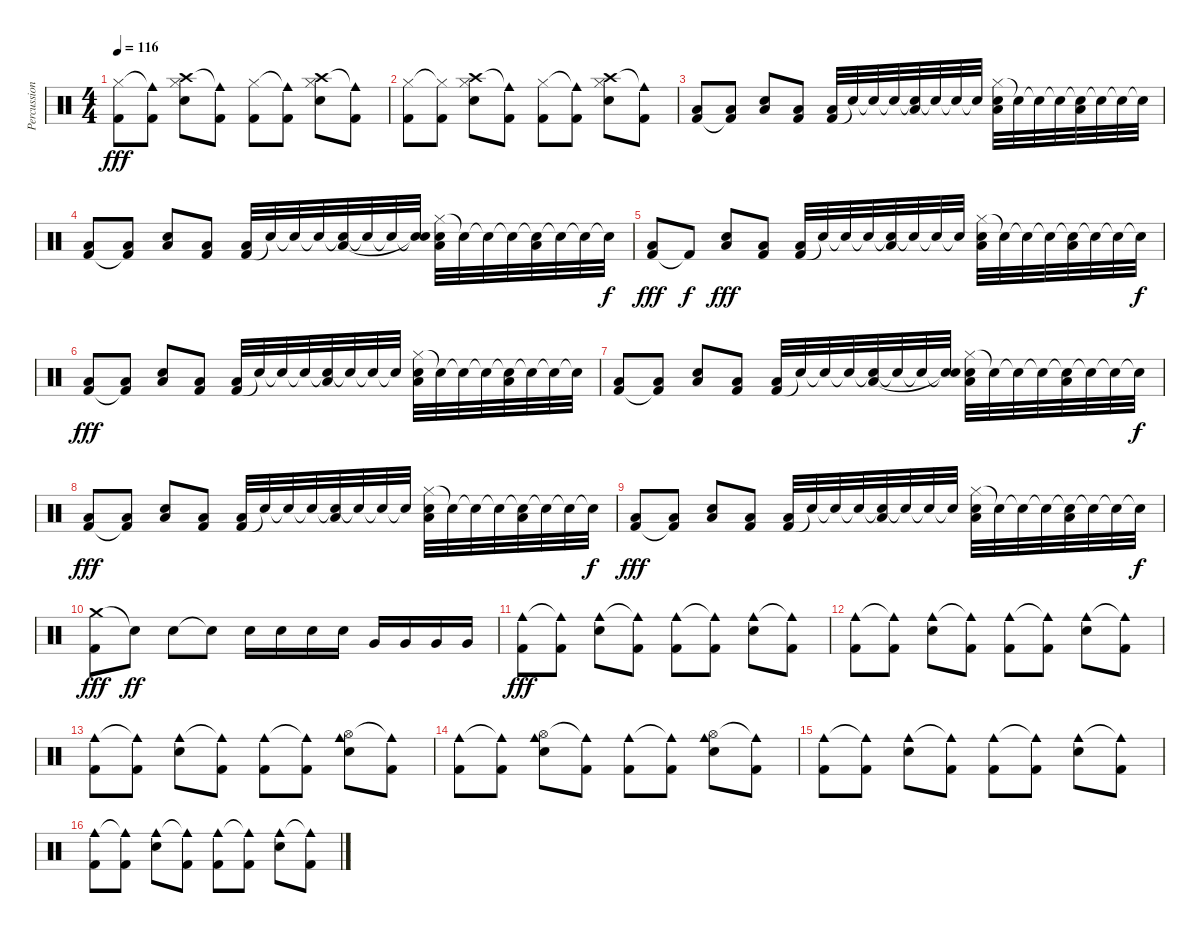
\track ("Percussion" "Percussion") {instrument percussion}
\staff {score}
\articulation defaults
\ts (4 4)
\tempo 116
\clef neutral
\ks c
("Hi-Hat (closed)" "Kick (hit) 2").8{dy fff} ("Cowbell medium (hit)"{t} "Kick (hit) 2").8 ("Crash high (hit)" "Hi-Hat (closed)" "Electric Snare (hit)").8 ("Cowbell medium (hit)"{t} "Kick (hit) 2").8 ("Hi-Hat (closed)" "Kick (hit) 2").8 ("Cowbell medium (hit)"{t} "Kick (hit) 2").8 ("Crash high (hit)" "Hi-Hat (closed)" "Electric Snare (hit)").8 ("Cowbell medium (hit)"{t} "Kick (hit) 2").8 |
("Hi-Hat (closed)" "Kick (hit) 2").8 ("Hi-Hat (closed)"{t} "Kick (hit) 2").8 ("Crash high (hit)" "Hi-Hat (closed)" "Electric Snare (hit)").8 ("Cowbell medium (hit)"{t} "Kick (hit) 2").8 ("Hi-Hat (closed)" "Kick (hit) 2").8 ("Cowbell medium (hit)"{t} "Kick (hit) 2").8 ("Crash high (hit)" "Hi-Hat (closed)" "Electric Snare (hit)").8 ("Cowbell medium (hit)"{t} "Kick (hit) 2").8 |
("Kick (hit) 2" "Low Floor Tom (hit)").8 ("Kick (hit) 2"{t} "Low Floor Tom (hit)").8 ("Electric Snare (hit)" "Low Floor Tom (hit)").8 ("Kick (hit) 2" "Low Floor Tom (hit)").8 ("Kick (hit) 2" "Low Floor Tom (hit)").32 "Snare (hit)"{t}.32 "Snare (hit)"{t}.32 "Snare (hit)"{t}.32 ("Snare (hit)"{t} "Low Floor Tom (hit)").32 "Snare (hit)"{t}.32 "Snare (hit)"{t}.32 "Snare (hit)"{t}.32 ("Hi-Hat (closed)" "Electric Snare (hit)" "Low Floor Tom (hit)").32 "Snare (hit)"{t}.32 "Snare (hit)"{t}.32 "Snare (hit)"{t}.32 ("Snare (hit)"{t} "Low Floor Tom (hit)").32 "Snare (hit)"{t}.32 "Snare (hit)"{t}.32 "Snare (hit)"{t}.32 |
("Kick (hit) 2" "Low Floor Tom (hit)").8 ("Kick (hit) 2"{t} "Low Floor Tom (hit)").8 ("Electric Snare (hit)" "Low Floor Tom (hit)").8 ("Kick (hit) 2" "Low Floor Tom (hit)").8 ("Kick (hit) 2" "Low Floor Tom (hit)").32 "Snare (hit)"{t}.32 "Snare (hit)"{t}.32 "Snare (hit)"{t}.32 ("Snare (hit)"{t} "Low Floor Tom (hit)").32 "Snare (hit)"{t}.32 "Snare (hit)"{t}.32 ("Snare (hit)"{t} "Snare (hit)"{t}).32 ("Hi-Hat (closed)" "Electric Snare (hit)" "Low Floor Tom (hit)").32 "Snare (hit)"{t}.32 "Snare (hit)"{t}.32 "Snare (hit)"{t}.32 ("Snare (hit)"{t} "Low Floor Tom (hit)").32 "Snare (hit)"{t}.32 "Snare (hit)"{t}.32 "Snare (hit)"{t}.32{dy f} |
("Kick (hit) 2" "Low Floor Tom (hit)").8{dy fff} "Kick (hit) 2"{t}.8{dy f} ("Electric Snare (hit)" "Low Floor Tom (hit)").8{dy fff} ("Kick (hit) 2" "Low Floor Tom (hit)").8 ("Kick (hit) 2" "Low Floor Tom (hit)").32 "Snare (hit)"{t}.32 "Snare (hit)"{t}.32 "Snare (hit)"{t}.32 ("Snare (hit)"{t} "Low Floor Tom (hit)").32 "Snare (hit)"{t}.32 "Snare (hit)"{t}.32 "Snare (hit)"{t}.32 ("Hi-Hat (closed)" "Electric Snare (hit)" "Low Floor Tom (hit)").32 "Snare (hit)"{t}.32 "Snare (hit)"{t}.32 "Snare (hit)"{t}.32 ("Snare (hit)"{t} "Low Floor Tom (hit)").32 "Snare (hit)"{t}.32 "Snare (hit)"{t}.32 "Snare (hit)"{t}.32{dy f} |
("Kick (hit) 2" "Low Floor Tom (hit)").8{dy fff} ("Kick (hit) 2"{t} "Low Floor Tom (hit)").8 ("Electric Snare (hit)" "Low Floor Tom (hit)").8 ("Kick (hit) 2" "Low Floor Tom (hit)").8 ("Kick (hit) 2" "Low Floor Tom (hit)").32 "Snare (hit)"{t}.32 "Snare (hit)"{t}.32 "Snare (hit)"{t}.32 ("Snare (hit)"{t} "Low Floor Tom (hit)").32 "Snare (hit)"{t}.32 "Snare (hit)"{t}.32 "Snare (hit)"{t}.32 ("Hi-Hat (closed)" "Electric Snare (hit)" "Low Floor Tom (hit)").32 "Snare (hit)"{t}.32 "Snare (hit)"{t}.32 "Snare (hit)"{t}.32 ("Snare (hit)"{t} "Low Floor Tom (hit)").32 "Snare (hit)"{t}.32 "Snare (hit)"{t}.32 "Snare (hit)"{t}.32 |
("Kick (hit) 2" "Low Floor Tom (hit)").8 ("Kick (hit) 2"{t} "Low Floor Tom (hit)").8 ("Electric Snare (hit)" "Low Floor Tom (hit)").8 ("Kick (hit) 2" "Low Floor Tom (hit)").8 ("Kick (hit) 2" "Low Floor Tom (hit)").32 "Snare (hit)"{t}.32 "Snare (hit)"{t}.32 "Snare (hit)"{t}.32 ("Snare (hit)"{t} "Low Floor Tom (hit)").32 "Snare (hit)"{t}.32 "Snare (hit)"{t}.32 ("Snare (hit)"{t} "Snare (hit)"{t}).32 ("Hi-Hat (closed)" "Electric Snare (hit)" "Low Floor Tom (hit)").32 "Snare (hit)"{t}.32 "Snare (hit)"{t}.32 "Snare (hit)"{t}.32 ("Snare (hit)"{t} "Low Floor Tom (hit)").32 "Snare (hit)"{t}.32 "Snare (hit)"{t}.32 "Snare (hit)"{t}.32{dy f} |
("Kick (hit) 2" "Low Floor Tom (hit)").8{dy fff} ("Kick (hit) 2"{t} "Low Floor Tom (hit)").8 ("Electric Snare (hit)" "Low Floor Tom (hit)").8 ("Kick (hit) 2" "Low Floor Tom (hit)").8 ("Kick (hit) 2" "Low Floor Tom (hit)").32 "Snare (hit)"{t}.32 "Snare (hit)"{t}.32 "Snare (hit)"{t}.32 ("Snare (hit)"{t} "Low Floor Tom (hit)").32 "Snare (hit)"{t}.32 "Snare (hit)"{t}.32 "Snare (hit)"{t}.32 ("Hi-Hat (closed)" "Electric Snare (hit)" "Low Floor Tom (hit)").32 "Snare (hit)"{t}.32 "Snare (hit)"{t}.32 "Snare (hit)"{t}.32 ("Snare (hit)"{t} "Low Floor Tom (hit)").32 "Snare (hit)"{t}.32 "Snare (hit)"{t}.32 "Snare (hit)"{t}.32{dy f} |
("Kick (hit) 2" "Low Floor Tom (hit)").8{dy fff} ("Kick (hit) 2"{t} "Low Floor Tom (hit)").8 ("Electric Snare (hit)" "Low Floor Tom (hit)").8 ("Kick (hit) 2" "Low Floor Tom (hit)").8 ("Kick (hit) 2" "Low Floor Tom (hit)").32 "Snare (hit)"{t}.32 "Snare (hit)"{t}.32 "Snare (hit)"{t}.32 ("Snare (hit)"{t} "Low Floor Tom (hit)").32 "Snare (hit)"{t}.32 "Snare (hit)"{t}.32 "Snare (hit)"{t}.32 ("Hi-Hat (closed)" "Electric Snare (hit)" "Low Floor Tom (hit)").32 "Snare (hit)"{t}.32 "Snare (hit)"{t}.32 "Snare (hit)"{t}.32 ("Snare (hit)"{t} "Low Floor Tom (hit)").32 "Snare (hit)"{t}.32 "Snare (hit)"{t}.32 "Snare (hit)"{t}.32{dy f} |
("Crash medium (hit)" "Kick (hit) 2").8{dy fff} "Snare (hit)"{t}.8{dy ff} "Electric Snare (hit)".8 "Snare (hit)"{t}.8 "Electric Snare (hit)".16 "Electric Snare (hit)".16 "Electric Snare (hit)".16 "Electric Snare (hit)".16 "Very Low Tom (hit)".16 "Very Low Tom (hit)".16 "Very Low Tom (hit)".16 "Very Low Tom (hit)".16 |
("Cowbell medium (hit)" "Kick (hit) 2").8{dy fff} ("Cowbell medium (hit)"{t} "Kick (hit) 2").8 ("Cowbell medium (hit)" "Electric Snare (hit)").8 ("Cowbell medium (hit)"{t} "Kick (hit) 2").8 ("Cowbell medium (hit)" "Kick (hit) 2").8 ("Cowbell medium (hit)"{t} "Kick (hit) 2").8 ("Cowbell medium (hit)" "Electric Snare (hit)").8 ("Cowbell medium (hit)"{t} "Kick (hit) 2").8 |
("Cowbell medium (hit)" "Kick (hit) 2").8 ("Cowbell medium (hit)"{t} "Kick (hit) 2").8 ("Cowbell medium (hit)" "Electric Snare (hit)").8 ("Cowbell medium (hit)"{t} "Kick (hit) 2").8 ("Cowbell medium (hit)" "Kick (hit) 2").8 ("Cowbell medium (hit)"{t} "Kick (hit) 2").8 ("Cowbell medium (hit)" "Electric Snare (hit)").8 ("Cowbell medium (hit)"{t} "Kick (hit) 2").8 |
("Cowbell medium (hit)" "Kick (hit) 2").8 ("Cowbell medium (hit)"{t} "Kick (hit) 2").8 ("Cowbell medium (hit)" "Electric Snare (hit)").8 ("Cowbell medium (hit)"{t} "Kick (hit) 2").8 ("Cowbell medium (hit)" "Kick (hit) 2").8 ("Cowbell medium (hit)"{t} "Kick (hit) 2").8 ("Hi-Hat (open)" "Cowbell medium (hit)" "Electric Snare (hit)").8 ("Cowbell medium (hit)"{t} "Kick (hit) 2").8 |
("Cowbell medium (hit)" "Kick (hit) 2").8 ("Cowbell medium (hit)"{t} "Kick (hit) 2").8 ("Hi-Hat (open)" "Cowbell medium (hit)" "Electric Snare (hit)").8 ("Cowbell medium (hit)"{t} "Kick (hit) 2").8 ("Cowbell medium (hit)" "Kick (hit) 2").8 ("Cowbell medium (hit)"{t} "Kick (hit) 2").8 ("Hi-Hat (open)" "Cowbell medium (hit)" "Electric Snare (hit)").8 ("Cowbell medium (hit)"{t} "Kick (hit) 2").8 |
("Cowbell medium (hit)" "Kick (hit) 2").8 ("Cowbell medium (hit)"{t} "Kick (hit) 2").8 ("Cowbell medium (hit)" "Electric Snare (hit)").8 ("Cowbell medium (hit)"{t} "Kick (hit) 2").8 ("Cowbell medium (hit)" "Kick (hit) 2").8 ("Cowbell medium (hit)"{t} "Kick (hit) 2").8 ("Cowbell medium (hit)" "Electric Snare (hit)").8 ("Cowbell medium (hit)"{t} "Kick (hit) 2").8 |
("Cowbell medium (hit)" "Kick (hit) 2").8 ("Cowbell medium (hit)"{t} "Kick (hit) 2").8 ("Cowbell medium (hit)" "Electric Snare (hit)").8 ("Cowbell medium (hit)"{t} "Kick (hit) 2").8 ("Cowbell medium (hit)" "Kick (hit) 2").8 ("Cowbell medium (hit)"{t} "Kick (hit) 2").8 ("Cowbell medium (hit)" "Electric Snare (hit)").8 ("Cowbell medium (hit)"{t} "Kick (hit) 2").8
